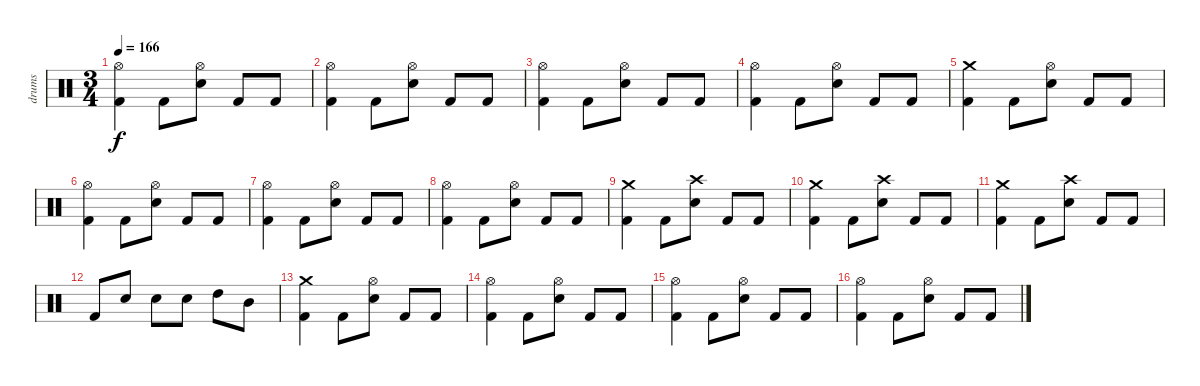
\track ("drums" "drums") {instrument percussion}
\staff {score}
\articulation defaults
\ts (3 4)
\tempo 166
\clef neutral
\ks c
("Hi-Hat (open)" "Kick (hit) 2").4{dy f} "Kick (hit) 2".8 ("Hi-Hat (open)" "Electric Snare (hit)").8 "Kick (hit) 2".8 "Kick (hit) 2".8 |
("Hi-Hat (open)" "Kick (hit) 2").4 "Kick (hit) 2".8 ("Hi-Hat (open)" "Electric Snare (hit)").8 "Kick (hit) 2".8 "Kick (hit) 2".8 |
("Hi-Hat (open)" "Kick (hit) 2").4 "Kick (hit) 2".8 ("Hi-Hat (open)" "Electric Snare (hit)").8 "Kick (hit) 2".8 "Kick (hit) 2".8 |
("Hi-Hat (open)" "Kick (hit) 2").4 "Kick (hit) 2".8 ("Hi-Hat (open)" "Electric Snare (hit)").8 "Kick (hit) 2".8 "Kick (hit) 2".8 |
("Crash medium (hit)" "Kick (hit) 2").4 "Kick (hit) 2".8 ("Hi-Hat (open)" "Electric Snare (hit)").8 "Kick (hit) 2".8 "Kick (hit) 2".8 |
("Hi-Hat (open)" "Kick (hit) 2").4 "Kick (hit) 2".8 ("Hi-Hat (open)" "Electric Snare (hit)").8 "Kick (hit) 2".8 "Kick (hit) 2".8 |
("Hi-Hat (open)" "Kick (hit) 2").4 "Kick (hit) 2".8 ("Hi-Hat (open)" "Electric Snare (hit)").8 "Kick (hit) 2".8 "Kick (hit) 2".8 |
("Hi-Hat (open)" "Kick (hit) 2").4 "Kick (hit) 2".8 ("Hi-Hat (open)" "Electric Snare (hit)").8 "Kick (hit) 2".8 "Kick (hit) 2".8 |
("Crash medium (hit)" "Kick (hit) 2").4 "Kick (hit) 2".8 ("Crash high (hit)" "Electric Snare (hit)").8 "Kick (hit) 2".8 "Kick (hit) 2".8 |
("Crash medium (hit)" "Kick (hit) 2").4 "Kick (hit) 2".8 ("Crash high (hit)" "Electric Snare (hit)").8 "Kick (hit) 2".8 "Kick (hit) 2".8 |
("Crash medium (hit)" "Kick (hit) 2").4 "Kick (hit) 2".8 ("Crash high (hit)" "Electric Snare (hit)").8 "Kick (hit) 2".8 "Kick (hit) 2".8 |
"Kick (hit) 2".8 "Electric Snare (hit)".8 "Electric Snare (hit)".8 "Electric Snare (hit)".8 "High Tom (hit)".8 "Mid Tom (hit)".8 |
("Crash medium (hit)" "Kick (hit) 2").4 "Kick (hit) 2".8 ("Hi-Hat (open)" "Electric Snare (hit)").8 "Kick (hit) 2".8 "Kick (hit) 2".8 |
("Hi-Hat (open)" "Kick (hit) 2").4 "Kick (hit) 2".8 ("Hi-Hat (open)" "Electric Snare (hit)").8 "Kick (hit) 2".8 "Kick (hit) 2".8 |
("Hi-Hat (open)" "Kick (hit) 2").4 "Kick (hit) 2".8 ("Hi-Hat (open)" "Electric Snare (hit)").8 "Kick (hit) 2".8 "Kick (hit) 2".8 |
("Hi-Hat (open)" "Kick (hit) 2").4 "Kick (hit) 2".8 ("Hi-Hat (open)" "Electric Snare (hit)").8 "Kick (hit) 2".8 "Kick (hit) 2".8
